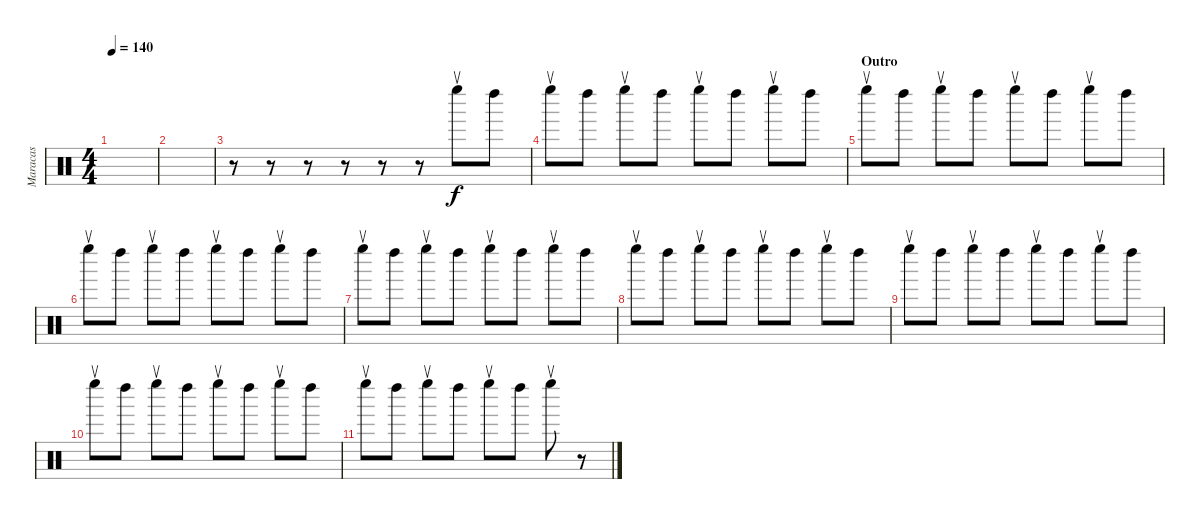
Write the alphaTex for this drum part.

\track ("Maracas" "Maracas") {instrument percussion}
\staff {score}
\articulation defaults
\ts (4 4)
\tempo 140
\clef neutral
\ks c
|
|
r.8 r.8 r.8 r.8 r.8 r.8 "Left Maraca (return)".8 "Left Maraca (hit)".8 |
"Left Maraca (return)".8 "Left Maraca (hit)".8 "Left Maraca (return)".8 "Left Maraca (hit)".8 "Left Maraca (return)".8 "Left Maraca (hit)".8 "Left Maraca (return)".8 "Left Maraca (hit)".8 |
\section ("" "Outro")
"Left Maraca (return)".8 "Left Maraca (hit)".8 "Left Maraca (return)".8 "Left Maraca (hit)".8 "Left Maraca (return)".8 "Left Maraca (hit)".8 "Left Maraca (return)".8 "Left Maraca (hit)".8 |
"Left Maraca (return)".8 "Left Maraca (hit)".8 "Left Maraca (return)".8 "Left Maraca (hit)".8 "Left Maraca (return)".8 "Left Maraca (hit)".8 "Left Maraca (return)".8 "Left Maraca (hit)".8 |
"Left Maraca (return)".8 "Left Maraca (hit)".8 "Left Maraca (return)".8 "Left Maraca (hit)".8 "Left Maraca (return)".8 "Left Maraca (hit)".8 "Left Maraca (return)".8 "Left Maraca (hit)".8 |
"Left Maraca (return)".8 "Left Maraca (hit)".8 "Left Maraca (return)".8 "Left Maraca (hit)".8 "Left Maraca (return)".8 "Left Maraca (hit)".8 "Left Maraca (return)".8 "Left Maraca (hit)".8 |
"Left Maraca (return)".8 "Left Maraca (hit)".8 "Left Maraca (return)".8 "Left Maraca (hit)".8 "Left Maraca (return)".8 "Left Maraca (hit)".8 "Left Maraca (return)".8 "Left Maraca (hit)".8 |
"Left Maraca (return)".8 "Left Maraca (hit)".8 "Left Maraca (return)".8 "Left Maraca (hit)".8 "Left Maraca (return)".8 "Left Maraca (hit)".8 "Left Maraca (return)".8 "Left Maraca (hit)".8 |
"Left Maraca (return)".8 "Left Maraca (hit)".8 "Left Maraca (return)".8 "Left Maraca (hit)".8 "Left Maraca (return)".8 "Left Maraca (hit)".8 "Left Maraca (return)".8 r.8
